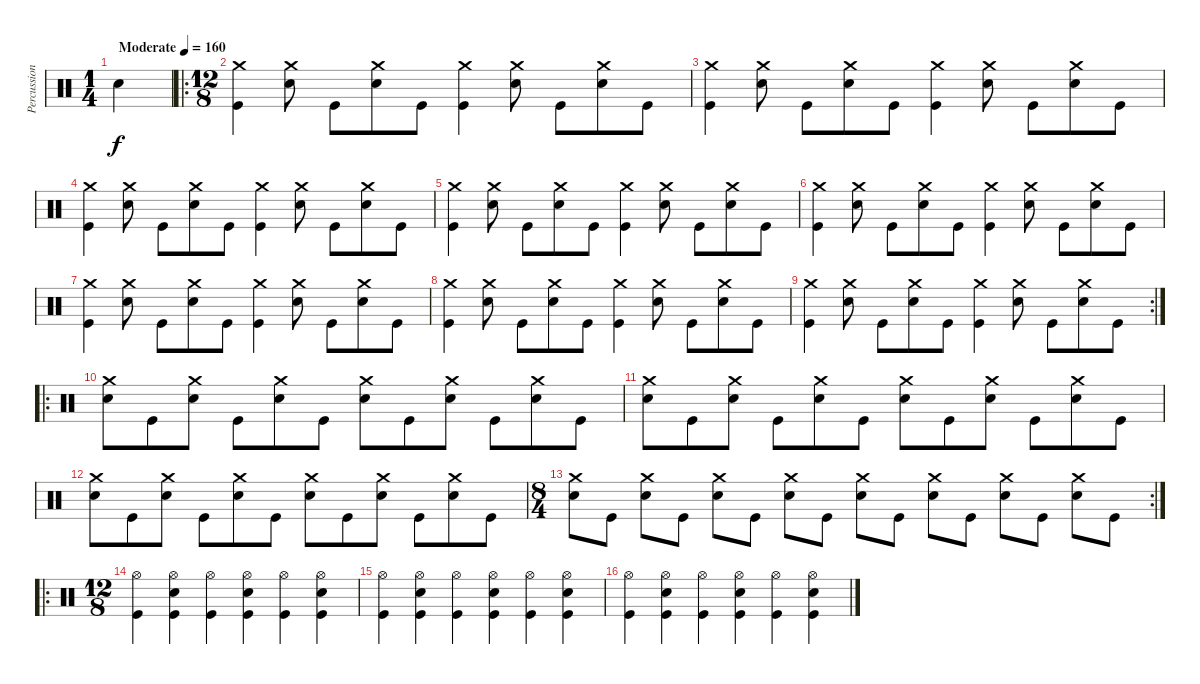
\track ("Percussion" "Percussion") {instrument percussion}
\staff {score}
\articulation defaults
\ts (1 4)
\tempo (160 "Moderate")
\clef neutral
\ks c "Snare (hit) 2".4{dy f}
|
\ro
\ts (12 8)
("Crash medium (hit)" "Kick (hit)").4 ("Crash medium (hit)" "Snare (hit) 2").8 "Kick (hit)".8 ("Crash medium (hit)" "Snare (hit) 2").8 "Kick (hit)".8 ("Crash medium (hit)" "Kick (hit)").4 ("Crash medium (hit)" "Snare (hit) 2").8 "Kick (hit)".8 ("Crash medium (hit)" "Snare (hit) 2").8 "Kick (hit)".8 |
("Crash medium (hit)" "Kick (hit)").4 ("Crash medium (hit)" "Snare (hit) 2").8 "Kick (hit)".8 ("Crash medium (hit)" "Snare (hit) 2").8 "Kick (hit)".8 ("Crash medium (hit)" "Kick (hit)").4 ("Crash medium (hit)" "Snare (hit) 2").8 "Kick (hit)".8 ("Crash medium (hit)" "Snare (hit) 2").8 "Kick (hit)".8 |
("Crash medium (hit)" "Kick (hit)").4 ("Crash medium (hit)" "Snare (hit) 2").8 "Kick (hit)".8 ("Crash medium (hit)" "Snare (hit) 2").8 "Kick (hit)".8 ("Crash medium (hit)" "Kick (hit)").4 ("Crash medium (hit)" "Snare (hit) 2").8 "Kick (hit)".8 ("Crash medium (hit)" "Snare (hit) 2").8 "Kick (hit)".8 |
("Crash medium (hit)" "Kick (hit)").4 ("Crash medium (hit)" "Snare (hit) 2").8 "Kick (hit)".8 ("Crash medium (hit)" "Snare (hit) 2").8 "Kick (hit)".8 ("Crash medium (hit)" "Kick (hit)").4 ("Crash medium (hit)" "Snare (hit) 2").8 "Kick (hit)".8 ("Crash medium (hit)" "Snare (hit) 2").8 "Kick (hit)".8 |
("Crash medium (hit)" "Kick (hit)").4 ("Crash medium (hit)" "Snare (hit) 2").8 "Kick (hit)".8 ("Crash medium (hit)" "Snare (hit) 2").8 "Kick (hit)".8 ("Crash medium (hit)" "Kick (hit)").4 ("Crash medium (hit)" "Snare (hit) 2").8 "Kick (hit)".8 ("Crash medium (hit)" "Snare (hit) 2").8 "Kick (hit)".8 |
("Crash medium (hit)" "Kick (hit)").4 ("Crash medium (hit)" "Snare (hit) 2").8 "Kick (hit)".8 ("Crash medium (hit)" "Snare (hit) 2").8 "Kick (hit)".8 ("Crash medium (hit)" "Kick (hit)").4 ("Crash medium (hit)" "Snare (hit) 2").8 "Kick (hit)".8 ("Crash medium (hit)" "Snare (hit) 2").8 "Kick (hit)".8 |
("Crash medium (hit)" "Kick (hit)").4 ("Crash medium (hit)" "Snare (hit) 2").8 "Kick (hit)".8 ("Crash medium (hit)" "Snare (hit) 2").8 "Kick (hit)".8 ("Crash medium (hit)" "Kick (hit)").4 ("Crash medium (hit)" "Snare (hit) 2").8 "Kick (hit)".8 ("Crash medium (hit)" "Snare (hit) 2").8 "Kick (hit)".8 |
\rc 2
("Crash medium (hit)" "Kick (hit)").4 ("Crash medium (hit)" "Snare (hit) 2").8 "Kick (hit)".8 ("Crash medium (hit)" "Snare (hit) 2").8 "Kick (hit)".8 ("Crash medium (hit)" "Kick (hit)").4 ("Crash medium (hit)" "Snare (hit) 2").8 "Kick (hit)".8 ("Crash medium (hit)" "Snare (hit) 2").8 "Kick (hit)".8 |
\ro
("Crash medium (hit)" "Snare (hit) 2").8 "Kick (hit)".8 ("Crash medium (hit)" "Snare (hit) 2").8 "Kick (hit)".8 ("Crash medium (hit)" "Snare (hit) 2").8 "Kick (hit)".8 ("Crash medium (hit)" "Snare (hit) 2").8 "Kick (hit)".8 ("Crash medium (hit)" "Snare (hit) 2").8 "Kick (hit)".8 ("Crash medium (hit)" "Snare (hit) 2").8 "Kick (hit)".8 |
("Crash medium (hit)" "Snare (hit) 2").8 "Kick (hit)".8 ("Crash medium (hit)" "Snare (hit) 2").8 "Kick (hit)".8 ("Crash medium (hit)" "Snare (hit) 2").8 "Kick (hit)".8 ("Crash medium (hit)" "Snare (hit) 2").8 "Kick (hit)".8 ("Crash medium (hit)" "Snare (hit) 2").8 "Kick (hit)".8 ("Crash medium (hit)" "Snare (hit) 2").8 "Kick (hit)".8 |
("Crash medium (hit)" "Snare (hit) 2").8 "Kick (hit)".8 ("Crash medium (hit)" "Snare (hit) 2").8 "Kick (hit)".8 ("Crash medium (hit)" "Snare (hit) 2").8 "Kick (hit)".8 ("Crash medium (hit)" "Snare (hit) 2").8 "Kick (hit)".8 ("Crash medium (hit)" "Snare (hit) 2").8 "Kick (hit)".8 ("Crash medium (hit)" "Snare (hit) 2").8 "Kick (hit)".8 |
\rc 2
\ts (8 4)
("Crash medium (hit)" "Snare (hit) 2").8 "Kick (hit)".8 ("Crash medium (hit)" "Snare (hit) 2").8 "Kick (hit)".8 ("Crash medium (hit)" "Snare (hit) 2").8 "Kick (hit)".8 ("Crash medium (hit)" "Snare (hit) 2").8 "Kick (hit)".8 ("Crash medium (hit)" "Snare (hit) 2").8 "Kick (hit)".8 ("Crash medium (hit)" "Snare (hit) 2").8 "Kick (hit)".8 ("Crash medium (hit)" "Snare (hit) 2").8 "Kick (hit)".8 ("Crash medium (hit)" "Snare (hit) 2").8 "Kick (hit)".8 |
\ro
\ts (12 8)
("Hi-Hat (open)" "Kick (hit)").4 ("Hi-Hat (open)" "Snare (hit) 2" "Kick (hit)").4 ("Hi-Hat (open)" "Kick (hit)").4 ("Hi-Hat (open)" "Snare (hit) 2" "Kick (hit)").4 ("Hi-Hat (open)" "Kick (hit)").4 ("Hi-Hat (open)" "Snare (hit) 2" "Kick (hit)").4 |
("Hi-Hat (open)" "Kick (hit)").4 ("Hi-Hat (open)" "Snare (hit) 2" "Kick (hit)").4 ("Hi-Hat (open)" "Kick (hit)").4 ("Hi-Hat (open)" "Snare (hit) 2" "Kick (hit)").4 ("Hi-Hat (open)" "Kick (hit)").4 ("Hi-Hat (open)" "Snare (hit) 2" "Kick (hit)").4 |
("Hi-Hat (open)" "Kick (hit)").4 ("Hi-Hat (open)" "Snare (hit) 2" "Kick (hit)").4 ("Hi-Hat (open)" "Kick (hit)").4 ("Hi-Hat (open)" "Snare (hit) 2" "Kick (hit)").4 ("Hi-Hat (open)" "Kick (hit)").4 ("Hi-Hat (open)" "Snare (hit) 2" "Kick (hit)").4
